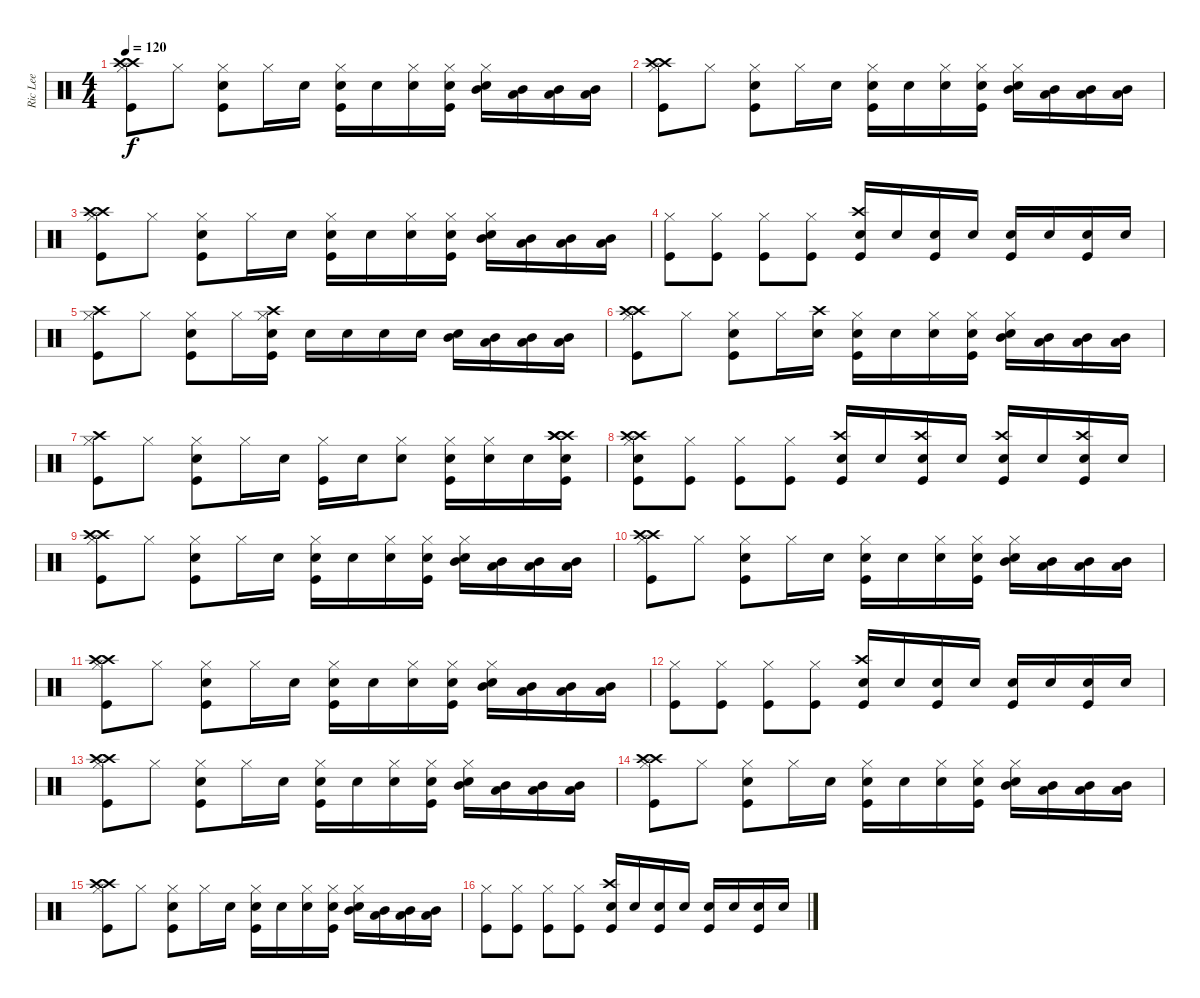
\track ("Ric Lee" "Ric Lee") {instrument percussion}
\staff {score}
\articulation defaults
\ts (4 4)
\tempo 120
\clef neutral
\ks c
("Kick (hit)" "Hi-Hat (closed)" "Crash high (hit)" "Crash high (hit)").8{dy f} "Hi-Hat (closed)".8 ("Kick (hit)" "Snare (hit) 2" "Hi-Hat (closed)").8 "Hi-Hat (closed)".16 "Snare (hit) 2".16 ("Kick (hit)" "Snare (hit) 2" "Hi-Hat (closed)").16 "Snare (hit) 2".16 ("Snare (hit) 2" "Hi-Hat (closed)").16 ("Kick (hit)" "Snare (hit) 2" "Hi-Hat (closed)").16 ("Mid Tom (hit)" "Snare (hit) 2" "Hi-Hat (closed)").16 ("Mid Tom (hit)" "Low Tom (hit)").16 ("Mid Tom (hit)" "Low Tom (hit)").16 ("Mid Tom (hit)" "Low Tom (hit)").16 |
("Kick (hit)" "Hi-Hat (closed)" "Crash high (hit)" "Crash high (hit)").8 "Hi-Hat (closed)".8 ("Kick (hit)" "Snare (hit) 2" "Hi-Hat (closed)").8 "Hi-Hat (closed)".16 "Snare (hit) 2".16 ("Kick (hit)" "Snare (hit) 2" "Hi-Hat (closed)").16 "Snare (hit) 2".16 ("Snare (hit) 2" "Hi-Hat (closed)").16 ("Kick (hit)" "Snare (hit) 2" "Hi-Hat (closed)").16 ("Mid Tom (hit)" "Snare (hit) 2" "Hi-Hat (closed)").16 ("Mid Tom (hit)" "Low Tom (hit)").16 ("Mid Tom (hit)" "Low Tom (hit)").16 ("Mid Tom (hit)" "Low Tom (hit)").16 |
("Kick (hit)" "Hi-Hat (closed)" "Crash high (hit)" "Crash high (hit)").8 "Hi-Hat (closed)".8 ("Kick (hit)" "Snare (hit) 2" "Hi-Hat (closed)").8 "Hi-Hat (closed)".16 "Snare (hit) 2".16 ("Kick (hit)" "Snare (hit) 2" "Hi-Hat (closed)").16 "Snare (hit) 2".16 ("Snare (hit) 2" "Hi-Hat (closed)").16 ("Kick (hit)" "Snare (hit) 2" "Hi-Hat (closed)").16 ("Mid Tom (hit)" "Snare (hit) 2" "Hi-Hat (closed)").16 ("Mid Tom (hit)" "Low Tom (hit)").16 ("Mid Tom (hit)" "Low Tom (hit)").16 ("Mid Tom (hit)" "Low Tom (hit)").16 |
("Kick (hit)" "Hi-Hat (closed)").8 ("Kick (hit)" "Hi-Hat (closed)").8 ("Kick (hit)" "Hi-Hat (closed)").8 ("Kick (hit)" "Hi-Hat (closed)").8 ("Kick (hit)" "Snare (hit) 2" "Crash high (hit)").16 "Snare (hit) 2".16 ("Kick (hit)" "Snare (hit) 2").16 "Snare (hit) 2".16 ("Kick (hit)" "Snare (hit) 2").16 "Snare (hit) 2".16 ("Kick (hit)" "Snare (hit) 2").16 "Snare (hit) 2".16 |
("Kick (hit)" "Hi-Hat (closed)" "Crash high (hit)").8 "Hi-Hat (closed)".8 ("Kick (hit)" "Snare (hit) 2" "Hi-Hat (closed)").8 "Hi-Hat (closed)".16 ("Kick (hit)" "Snare (hit) 2" "Hi-Hat (closed)" "Crash high (hit)").16 "Snare (hit) 2".16 "Snare (hit) 2".16 "Snare (hit) 2".16 "Snare (hit) 2".16 ("Mid Tom (hit)" "Snare (hit) 2").16 ("Mid Tom (hit)" "Low Tom (hit)").16 ("Mid Tom (hit)" "Low Tom (hit)").16 ("Mid Tom (hit)" "Low Tom (hit)").16 |
("Kick (hit)" "Hi-Hat (closed)" "Crash high (hit)" "Crash high (hit)").8 "Hi-Hat (closed)".8 ("Kick (hit)" "Snare (hit) 2" "Hi-Hat (closed)").8 "Hi-Hat (closed)".16 ("Snare (hit) 2" "Crash high (hit)").16 ("Kick (hit)" "Snare (hit) 2" "Hi-Hat (closed)").16 "Snare (hit) 2".16 ("Snare (hit) 2" "Hi-Hat (closed)").16 ("Kick (hit)" "Snare (hit) 2" "Hi-Hat (closed)").16 ("Mid Tom (hit)" "Snare (hit) 2" "Hi-Hat (closed)").16 ("Mid Tom (hit)" "Low Tom (hit)").16 ("Mid Tom (hit)" "Low Tom (hit)").16 ("Mid Tom (hit)" "Low Tom (hit)").16 |
("Kick (hit)" "Hi-Hat (closed)" "Crash high (hit)").8 "Hi-Hat (closed)".8 ("Kick (hit)" "Snare (hit) 2" "Hi-Hat (closed)").8 "Hi-Hat (closed)".16 "Snare (hit) 2".16 ("Kick (hit)" "Hi-Hat (closed)").16 "Snare (hit) 2".16 ("Snare (hit) 2" "Hi-Hat (closed)").8 ("Kick (hit)" "Snare (hit) 2" "Hi-Hat (closed)").16 ("Snare (hit) 2" "Hi-Hat (closed)").16 "Snare (hit) 2".16 ("Kick (hit)" "Snare (hit) 2" "Crash high (hit)" "Crash high (hit)" "Crash high (hit)").16 |
("Kick (hit)" "Snare (hit) 2" "Hi-Hat (closed)" "Crash high (hit)" "Crash high (hit)").8 ("Kick (hit)" "Hi-Hat (closed)").8 ("Kick (hit)" "Hi-Hat (closed)").8 ("Kick (hit)" "Hi-Hat (closed)").8 ("Kick (hit)" "Snare (hit) 2" "Crash high (hit)").16 "Snare (hit) 2".16 ("Kick (hit)" "Snare (hit) 2" "Crash high (hit)").16 "Snare (hit) 2".16 ("Kick (hit)" "Snare (hit) 2" "Crash high (hit)").16 "Snare (hit) 2".16 ("Kick (hit)" "Snare (hit) 2" "Crash high (hit)").16 "Snare (hit) 2".16 |
("Kick (hit)" "Hi-Hat (closed)" "Crash high (hit)" "Crash high (hit)").8 "Hi-Hat (closed)".8 ("Kick (hit)" "Snare (hit) 2" "Hi-Hat (closed)").8 "Hi-Hat (closed)".16 "Snare (hit) 2".16 ("Kick (hit)" "Snare (hit) 2" "Hi-Hat (closed)").16 "Snare (hit) 2".16 ("Snare (hit) 2" "Hi-Hat (closed)").16 ("Kick (hit)" "Snare (hit) 2" "Hi-Hat (closed)").16 ("Mid Tom (hit)" "Snare (hit) 2" "Hi-Hat (closed)").16 ("Mid Tom (hit)" "Low Tom (hit)").16 ("Mid Tom (hit)" "Low Tom (hit)").16 ("Mid Tom (hit)" "Low Tom (hit)").16 |
("Kick (hit)" "Hi-Hat (closed)" "Crash high (hit)" "Crash high (hit)").8 "Hi-Hat (closed)".8 ("Kick (hit)" "Snare (hit) 2" "Hi-Hat (closed)").8 "Hi-Hat (closed)".16 "Snare (hit) 2".16 ("Kick (hit)" "Snare (hit) 2" "Hi-Hat (closed)").16 "Snare (hit) 2".16 ("Snare (hit) 2" "Hi-Hat (closed)").16 ("Kick (hit)" "Snare (hit) 2" "Hi-Hat (closed)").16 ("Mid Tom (hit)" "Snare (hit) 2" "Hi-Hat (closed)").16 ("Mid Tom (hit)" "Low Tom (hit)").16 ("Mid Tom (hit)" "Low Tom (hit)").16 ("Mid Tom (hit)" "Low Tom (hit)").16 |
("Kick (hit)" "Hi-Hat (closed)" "Crash high (hit)" "Crash high (hit)").8 "Hi-Hat (closed)".8 ("Kick (hit)" "Snare (hit) 2" "Hi-Hat (closed)").8 "Hi-Hat (closed)".16 "Snare (hit) 2".16 ("Kick (hit)" "Snare (hit) 2" "Hi-Hat (closed)").16 "Snare (hit) 2".16 ("Snare (hit) 2" "Hi-Hat (closed)").16 ("Kick (hit)" "Snare (hit) 2" "Hi-Hat (closed)").16 ("Mid Tom (hit)" "Snare (hit) 2" "Hi-Hat (closed)").16 ("Mid Tom (hit)" "Low Tom (hit)").16 ("Mid Tom (hit)" "Low Tom (hit)").16 ("Mid Tom (hit)" "Low Tom (hit)").16 |
("Kick (hit)" "Hi-Hat (closed)").8 ("Kick (hit)" "Hi-Hat (closed)").8 ("Kick (hit)" "Hi-Hat (closed)").8 ("Kick (hit)" "Hi-Hat (closed)").8 ("Kick (hit)" "Snare (hit) 2" "Crash high (hit)").16 "Snare (hit) 2".16 ("Kick (hit)" "Snare (hit) 2").16 "Snare (hit) 2".16 ("Kick (hit)" "Snare (hit) 2").16 "Snare (hit) 2".16 ("Kick (hit)" "Snare (hit) 2").16 "Snare (hit) 2".16 |
("Kick (hit)" "Hi-Hat (closed)" "Crash high (hit)" "Crash high (hit)").8 "Hi-Hat (closed)".8 ("Kick (hit)" "Snare (hit) 2" "Hi-Hat (closed)").8 "Hi-Hat (closed)".16 "Snare (hit) 2".16 ("Kick (hit)" "Snare (hit) 2" "Hi-Hat (closed)").16 "Snare (hit) 2".16 ("Snare (hit) 2" "Hi-Hat (closed)").16 ("Kick (hit)" "Snare (hit) 2" "Hi-Hat (closed)").16 ("Mid Tom (hit)" "Snare (hit) 2" "Hi-Hat (closed)").16 ("Mid Tom (hit)" "Low Tom (hit)").16 ("Mid Tom (hit)" "Low Tom (hit)").16 ("Mid Tom (hit)" "Low Tom (hit)").16 |
("Kick (hit)" "Hi-Hat (closed)" "Crash high (hit)" "Crash high (hit)").8 "Hi-Hat (closed)".8 ("Kick (hit)" "Snare (hit) 2" "Hi-Hat (closed)").8 "Hi-Hat (closed)".16 "Snare (hit) 2".16 ("Kick (hit)" "Snare (hit) 2" "Hi-Hat (closed)").16 "Snare (hit) 2".16 ("Snare (hit) 2" "Hi-Hat (closed)").16 ("Kick (hit)" "Snare (hit) 2" "Hi-Hat (closed)").16 ("Mid Tom (hit)" "Snare (hit) 2" "Hi-Hat (closed)").16 ("Mid Tom (hit)" "Low Tom (hit)").16 ("Mid Tom (hit)" "Low Tom (hit)").16 ("Mid Tom (hit)" "Low Tom (hit)").16 |
("Kick (hit)" "Hi-Hat (closed)" "Crash high (hit)" "Crash high (hit)").8 "Hi-Hat (closed)".8 ("Kick (hit)" "Snare (hit) 2" "Hi-Hat (closed)").8 "Hi-Hat (closed)".16 "Snare (hit) 2".16 ("Kick (hit)" "Snare (hit) 2" "Hi-Hat (closed)").16 "Snare (hit) 2".16 ("Snare (hit) 2" "Hi-Hat (closed)").16 ("Kick (hit)" "Snare (hit) 2" "Hi-Hat (closed)").16 ("Mid Tom (hit)" "Snare (hit) 2" "Hi-Hat (closed)").16 ("Mid Tom (hit)" "Low Tom (hit)").16 ("Mid Tom (hit)" "Low Tom (hit)").16 ("Mid Tom (hit)" "Low Tom (hit)").16 |
("Kick (hit)" "Hi-Hat (closed)").8 ("Kick (hit)" "Hi-Hat (closed)").8 ("Kick (hit)" "Hi-Hat (closed)").8 ("Kick (hit)" "Hi-Hat (closed)").8 ("Kick (hit)" "Snare (hit) 2" "Crash high (hit)").16 "Snare (hit) 2".16 ("Kick (hit)" "Snare (hit) 2").16 "Snare (hit) 2".16 ("Kick (hit)" "Snare (hit) 2").16 "Snare (hit) 2".16 ("Kick (hit)" "Snare (hit) 2").16 "Snare (hit) 2".16
